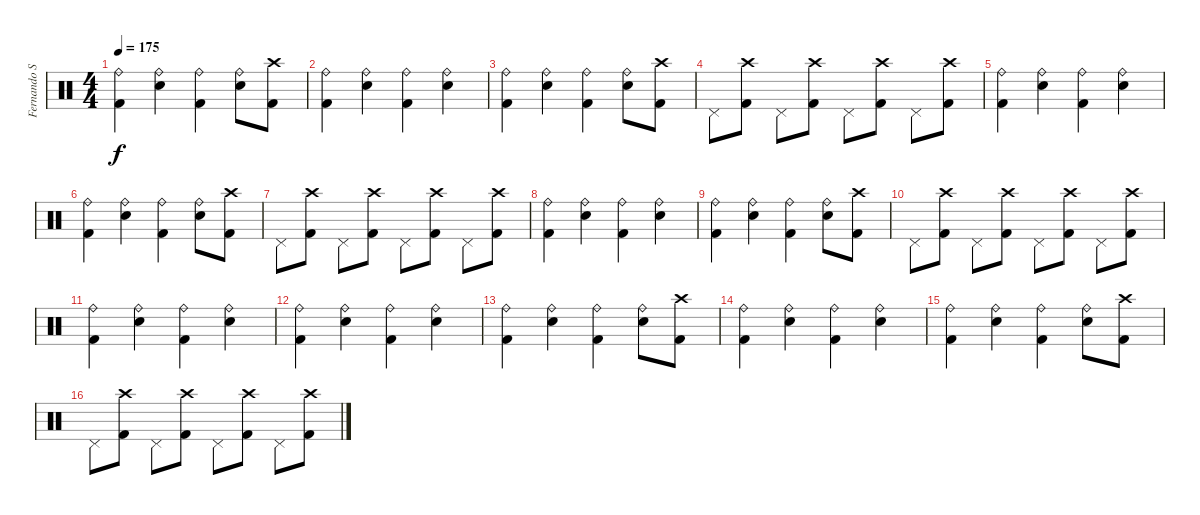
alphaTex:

\track ("Fernando Scarcella" "Fernando S") {instrument percussion}
\staff {score}
\articulation defaults
\ts (4 4)
\tempo 175
\clef neutral
\ks c
("Kick (hit) 2" "Ride (bell)").4{dy f} ("Snare (hit) 2" "Ride (bell)").4 ("Kick (hit) 2" "Ride (bell)").4 ("Snare (hit) 2" "Ride (bell)").8 ("Crash high (hit)" "Kick (hit) 2").8 |
("Kick (hit) 2" "Ride (bell)").4 ("Snare (hit) 2" "Ride (bell)").4 ("Kick (hit) 2" "Ride (bell)").4 ("Snare (hit) 2" "Ride (bell)").4 |
("Kick (hit) 2" "Ride (bell)").4 ("Snare (hit) 2" "Ride (bell)").4 ("Kick (hit) 2" "Ride (bell)").4 ("Snare (hit) 2" "Ride (bell)").8 ("Kick (hit) 2" "Crash high (hit)").8 |
"Pedal Hi-Hat (hit)".8 ("Crash high (hit)" "Kick (hit) 2").8 "Pedal Hi-Hat (hit)".8 ("Crash high (hit)" "Kick (hit) 2").8 "Pedal Hi-Hat (hit)".8 ("Crash high (hit)" "Kick (hit) 2").8 "Pedal Hi-Hat (hit)".8 ("Crash high (hit)" "Kick (hit) 2").8 |
("Kick (hit) 2" "Ride (bell)").4 ("Snare (hit) 2" "Ride (bell)").4 ("Kick (hit) 2" "Ride (bell)").4 ("Snare (hit) 2" "Ride (bell)").4 |
("Kick (hit) 2" "Ride (bell)").4 ("Snare (hit) 2" "Ride (bell)").4 ("Kick (hit) 2" "Ride (bell)").4 ("Snare (hit) 2" "Ride (bell)").8 ("Kick (hit) 2" "Crash high (hit)").8 |
"Pedal Hi-Hat (hit)".8 ("Crash high (hit)" "Kick (hit) 2").8 "Pedal Hi-Hat (hit)".8 ("Crash high (hit)" "Kick (hit) 2").8 "Pedal Hi-Hat (hit)".8 ("Crash high (hit)" "Kick (hit) 2").8 "Pedal Hi-Hat (hit)".8 ("Crash high (hit)" "Kick (hit) 2").8 |
("Kick (hit) 2" "Ride (bell)").4 ("Snare (hit) 2" "Ride (bell)").4 ("Kick (hit) 2" "Ride (bell)").4 ("Snare (hit) 2" "Ride (bell)").4 |
("Kick (hit) 2" "Ride (bell)").4 ("Snare (hit) 2" "Ride (bell)").4 ("Kick (hit) 2" "Ride (bell)").4 ("Snare (hit) 2" "Ride (bell)").8 ("Crash high (hit)" "Kick (hit) 2").8 |
"Pedal Hi-Hat (hit)".8 ("Crash high (hit)" "Kick (hit) 2").8 "Pedal Hi-Hat (hit)".8 ("Crash high (hit)" "Kick (hit) 2").8 "Pedal Hi-Hat (hit)".8 ("Crash high (hit)" "Kick (hit) 2").8 "Pedal Hi-Hat (hit)".8 ("Crash high (hit)" "Kick (hit) 2").8 |
("Kick (hit) 2" "Ride (bell)").4 ("Snare (hit) 2" "Ride (bell)").4 ("Kick (hit) 2" "Ride (bell)").4 ("Snare (hit) 2" "Ride (bell)").4 |
("Kick (hit) 2" "Ride (bell)").4 ("Snare (hit) 2" "Ride (bell)").4 ("Kick (hit) 2" "Ride (bell)").4 ("Snare (hit) 2" "Ride (bell)").4 |
("Kick (hit) 2" "Ride (bell)").4 ("Snare (hit) 2" "Ride (bell)").4 ("Kick (hit) 2" "Ride (bell)").4 ("Snare (hit) 2" "Ride (bell)").8 ("Crash high (hit)" "Kick (hit) 2").8 |
("Kick (hit) 2" "Ride (bell)").4 ("Snare (hit) 2" "Ride (bell)").4 ("Kick (hit) 2" "Ride (bell)").4 ("Snare (hit) 2" "Ride (bell)").4 |
("Kick (hit) 2" "Ride (bell)").4 ("Snare (hit) 2" "Ride (bell)").4 ("Kick (hit) 2" "Ride (bell)").4 ("Snare (hit) 2" "Ride (bell)").8 ("Kick (hit) 2" "Crash high (hit)").8 |
"Pedal Hi-Hat (hit)".8 ("Crash high (hit)" "Kick (hit) 2").8 "Pedal Hi-Hat (hit)".8 ("Crash high (hit)" "Kick (hit) 2").8 "Pedal Hi-Hat (hit)".8 ("Crash high (hit)" "Kick (hit) 2").8 "Pedal Hi-Hat (hit)".8 ("Crash high (hit)" "Kick (hit) 2").8
